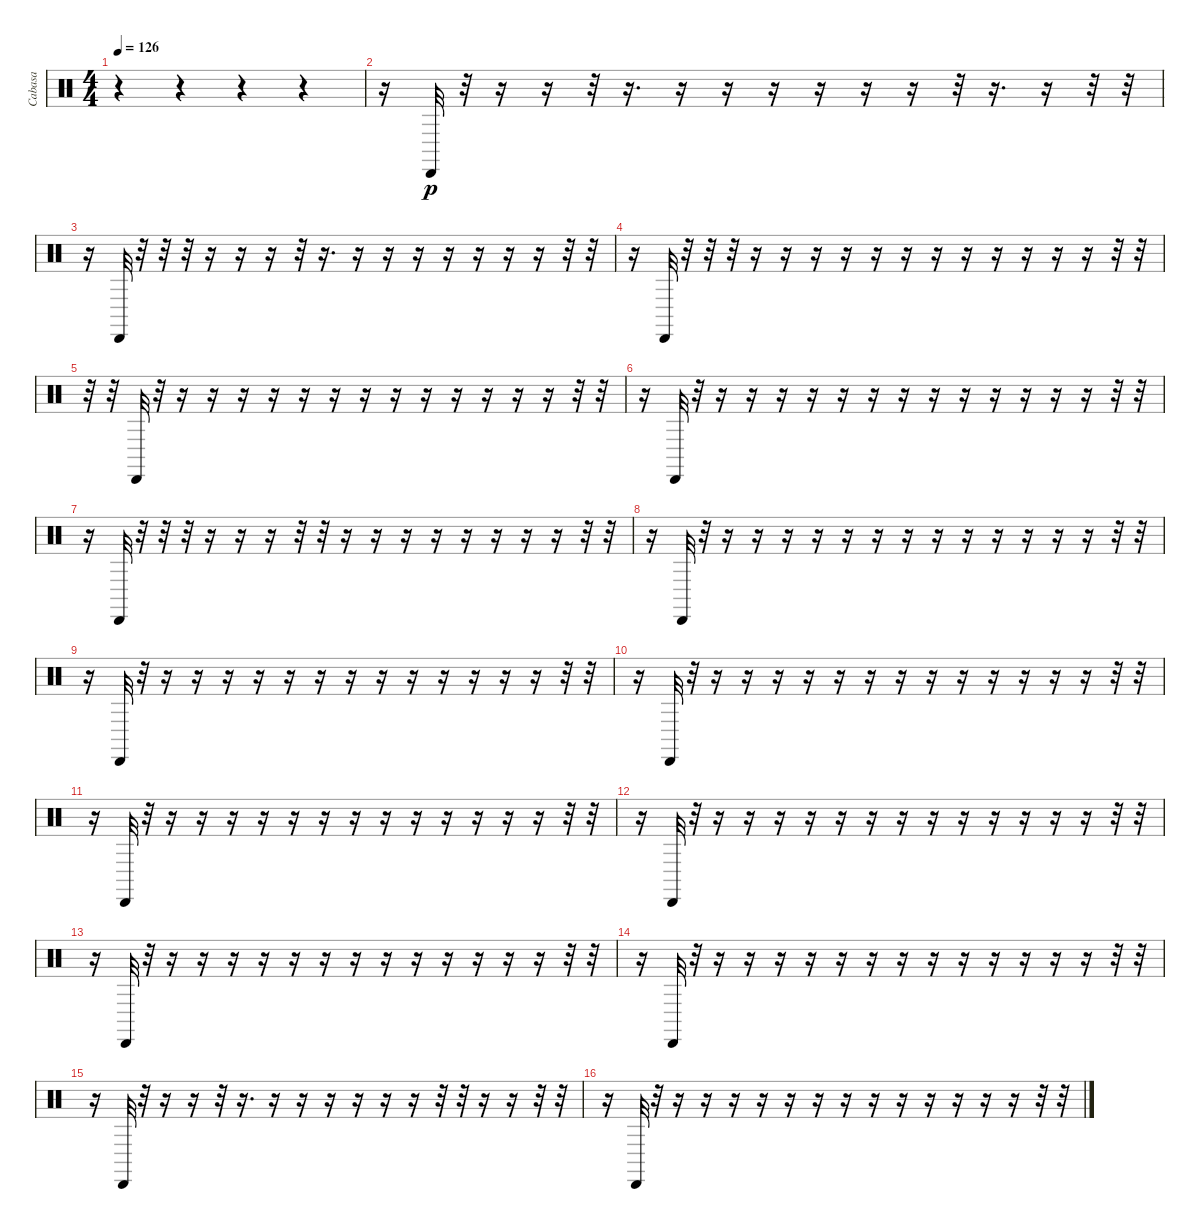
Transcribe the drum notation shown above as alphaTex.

\track ("Cabasa" "Cabasa") {instrument percussion}
\staff {score}
\articulation defaults
\ts (4 4)
\tempo 126
\clef neutral
\ks c
r.4{dy p} r.4 r.4 r.4 |
r.16 "Cabasa (hit)".32 r.32 r.16 r.16 r.32 r.16{d} r.16 r.16 r.16 r.16 r.16 r.16 r.32 r.16{d} r.16 r.32 r.32 |
r.16 "Cabasa (hit)".32 r.32 r.32 r.32 r.16 r.16 r.16 r.32 r.16{d} r.16 r.16 r.16 r.16 r.16 r.16 r.16 r.32 r.32 |
r.16 "Cabasa (hit)".32 r.32 r.32 r.32 r.16 r.16 r.16 r.16 r.16 r.16 r.16 r.16 r.16 r.16 r.16 r.16 r.32 r.32 |
r.32 r.32 "Cabasa (hit)".32 r.32 r.16 r.16 r.16 r.16 r.16 r.16 r.16 r.16 r.16 r.16 r.16 r.16 r.16 r.32 r.32 |
r.16 "Cabasa (hit)".32 r.32 r.16 r.16 r.16 r.16 r.16 r.16 r.16 r.16 r.16 r.16 r.16 r.16 r.16 r.32 r.32 |
r.16 "Cabasa (hit)".32 r.32 r.32 r.32 r.16 r.16 r.16 r.32 r.32 r.16 r.16 r.16 r.16 r.16 r.16 r.16 r.16 r.32 r.32 |
r.16 "Cabasa (hit)".32 r.32 r.16 r.16 r.16 r.16 r.16 r.16 r.16 r.16 r.16 r.16 r.16 r.16 r.16 r.32 r.32 |
r.16 "Cabasa (hit)".32 r.32 r.16 r.16 r.16 r.16 r.16 r.16 r.16 r.16 r.16 r.16 r.16 r.16 r.16 r.32 r.32 |
r.16 "Cabasa (hit)".32 r.32 r.16 r.16 r.16 r.16 r.16 r.16 r.16 r.16 r.16 r.16 r.16 r.16 r.16 r.32 r.32 |
r.16 "Cabasa (hit)".32 r.32 r.16 r.16 r.16 r.16 r.16 r.16 r.16 r.16 r.16 r.16 r.16 r.16 r.16 r.32 r.32 |
r.16 "Cabasa (hit)".32 r.32 r.16 r.16 r.16 r.16 r.16 r.16 r.16 r.16 r.16 r.16 r.16 r.16 r.16 r.32 r.32 |
r.16 "Cabasa (hit)".32 r.32 r.16 r.16 r.16 r.16 r.16 r.16 r.16 r.16 r.16 r.16 r.16 r.16 r.16 r.32 r.32 |
r.16 "Cabasa (hit)".32 r.32 r.16 r.16 r.16 r.16 r.16 r.16 r.16 r.16 r.16 r.16 r.16 r.16 r.16 r.32 r.32 |
r.16 "Cabasa (hit)".32 r.32 r.16 r.16 r.32 r.16{d} r.16 r.16 r.16 r.16 r.16 r.16 r.32 r.32 r.16 r.16 r.32 r.32 |
r.16 "Cabasa (hit)".32 r.32 r.16 r.16 r.16 r.16 r.16 r.16 r.16 r.16 r.16 r.16 r.16 r.16 r.16 r.32 r.32
